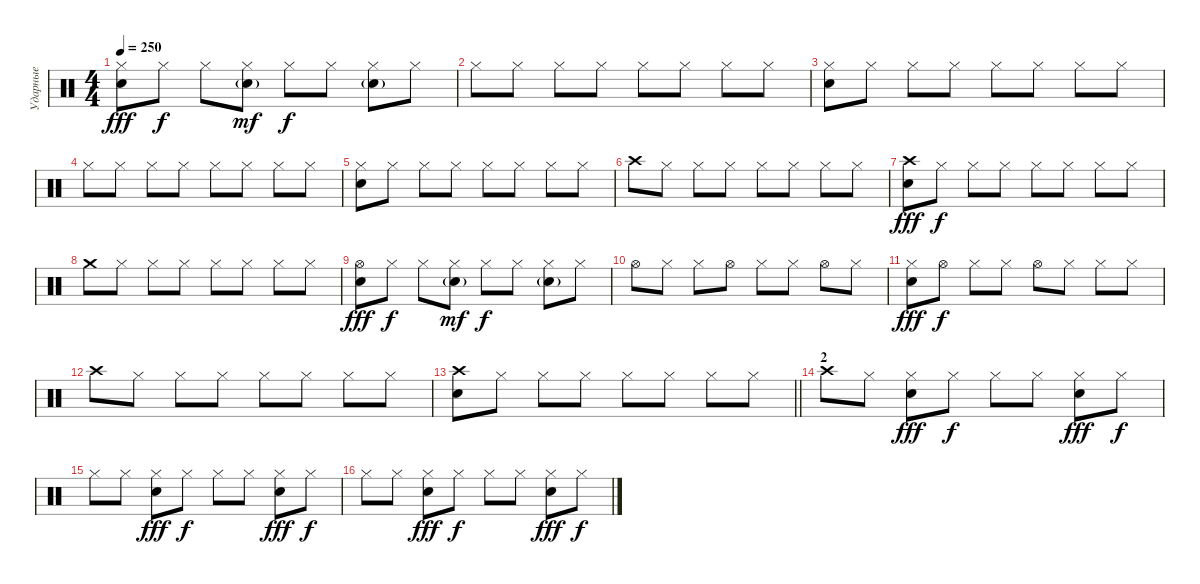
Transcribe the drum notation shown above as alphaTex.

\track ("Ударные" "Ударные") {instrument percussion}
\staff {score}
\articulation defaults
\ts (4 4)
\tempo 250
\clef neutral
\ks c
("Hi-Hat (closed)" "Snare (hit) 2").8{dy fff} "Hi-Hat (closed)".8{dy f} "Hi-Hat (closed)".8 ("Hi-Hat (closed)" "Snare (hit) 2"{g}).8{dy mf} "Hi-Hat (closed)".8{dy f} "Hi-Hat (closed)".8 ("Hi-Hat (closed)" "Snare (hit) 2"{g}).8 "Hi-Hat (closed)".8 |
"Hi-Hat (closed)".8 "Hi-Hat (closed)".8 "Hi-Hat (closed)".8 "Hi-Hat (closed)".8 "Hi-Hat (closed)".8 "Hi-Hat (closed)".8 "Hi-Hat (closed)".8 "Hi-Hat (closed)".8 |
("Hi-Hat (closed)" "Snare (hit) 2").8 "Hi-Hat (closed)".8 "Hi-Hat (closed)".8 "Hi-Hat (closed)".8 "Hi-Hat (closed)".8 "Hi-Hat (closed)".8 "Hi-Hat (closed)".8 "Hi-Hat (closed)".8 |
"Hi-Hat (closed)".8 "Hi-Hat (closed)".8 "Hi-Hat (closed)".8 "Hi-Hat (closed)".8 "Hi-Hat (closed)".8 "Hi-Hat (closed)".8 "Hi-Hat (closed)".8 "Hi-Hat (closed)".8 |
("Hi-Hat (closed)" "Snare (hit) 2").8 "Hi-Hat (closed)".8 "Hi-Hat (closed)".8 "Hi-Hat (closed)".8 "Hi-Hat (closed)".8 "Hi-Hat (closed)".8 "Hi-Hat (closed)".8 "Hi-Hat (closed)".8 |
"Crash high (hit)".8 "Hi-Hat (closed)".8 "Hi-Hat (closed)".8 "Hi-Hat (closed)".8 "Hi-Hat (closed)".8 "Hi-Hat (closed)".8 "Hi-Hat (closed)".8 "Hi-Hat (closed)".8 |
("Crash high (hit)" "Snare (hit) 2").8{dy fff} "Hi-Hat (closed)".8{dy f} "Hi-Hat (closed)".8 "Hi-Hat (closed)".8 "Hi-Hat (closed)".8 "Hi-Hat (closed)".8 "Hi-Hat (closed)".8 "Hi-Hat (closed)".8 |
"Crash medium (hit)".8 "Hi-Hat (closed)".8 "Hi-Hat (closed)".8 "Hi-Hat (closed)".8 "Hi-Hat (closed)".8 "Hi-Hat (closed)".8 "Hi-Hat (closed)".8 "Hi-Hat (closed)".8 |
("Hi-Hat (open)" "Snare (hit) 2").8{dy fff} "Hi-Hat (closed)".8{dy f} "Hi-Hat (closed)".8 ("Hi-Hat (closed)" "Snare (hit) 2"{g}).8{dy mf} "Hi-Hat (closed)".8{dy f} "Hi-Hat (closed)".8 ("Hi-Hat (closed)" "Snare (hit) 2"{g}).8 "Hi-Hat (closed)".8 |
"Hi-Hat (open)".8 "Hi-Hat (closed)".8 "Hi-Hat (closed)".8 "Hi-Hat (open)".8 "Hi-Hat (closed)".8 "Hi-Hat (closed)".8 "Hi-Hat (open)".8 "Hi-Hat (closed)".8 |
("Hi-Hat (closed)" "Snare (hit) 2").8{dy fff} "Hi-Hat (open)".8{dy f} "Hi-Hat (closed)".8 "Hi-Hat (closed)".8 "Hi-Hat (open)".8 "Hi-Hat (closed)".8 "Hi-Hat (closed)".8 "Hi-Hat (closed)".8 |
"Crash high (hit)".8 "Hi-Hat (closed)".8 "Hi-Hat (closed)".8 "Hi-Hat (closed)".8 "Hi-Hat (closed)".8 "Hi-Hat (closed)".8 "Hi-Hat (closed)".8 "Hi-Hat (closed)".8 |
\barLineRight lightlight
("Crash high (hit)" "Snare (hit) 2").8 "Hi-Hat (closed)".8 "Hi-Hat (closed)".8 "Hi-Hat (closed)".8 "Hi-Hat (closed)".8 "Hi-Hat (closed)".8 "Hi-Hat (closed)".8 "Hi-Hat (closed)".8 |
\section ("" "2")
"Crash high (hit)".8 "Hi-Hat (closed)".8 ("Hi-Hat (closed)" "Snare (hit) 2").8{dy fff} "Hi-Hat (closed)".8{dy f} "Hi-Hat (closed)".8 "Hi-Hat (closed)".8 ("Hi-Hat (closed)" "Snare (hit) 2").8{dy fff} "Hi-Hat (closed)".8{dy f} |
"Hi-Hat (closed)".8 "Hi-Hat (closed)".8 ("Hi-Hat (closed)" "Snare (hit) 2").8{dy fff} "Hi-Hat (closed)".8{dy f} "Hi-Hat (closed)".8 "Hi-Hat (closed)".8 ("Hi-Hat (closed)" "Snare (hit) 2").8{dy fff} "Hi-Hat (closed)".8{dy f} |
"Hi-Hat (closed)".8 "Hi-Hat (closed)".8 ("Hi-Hat (closed)" "Snare (hit) 2").8{dy fff} "Hi-Hat (closed)".8{dy f} "Hi-Hat (closed)".8 "Hi-Hat (closed)".8 ("Hi-Hat (closed)" "Snare (hit) 2").8{dy fff} "Hi-Hat (closed)".8{dy f}
